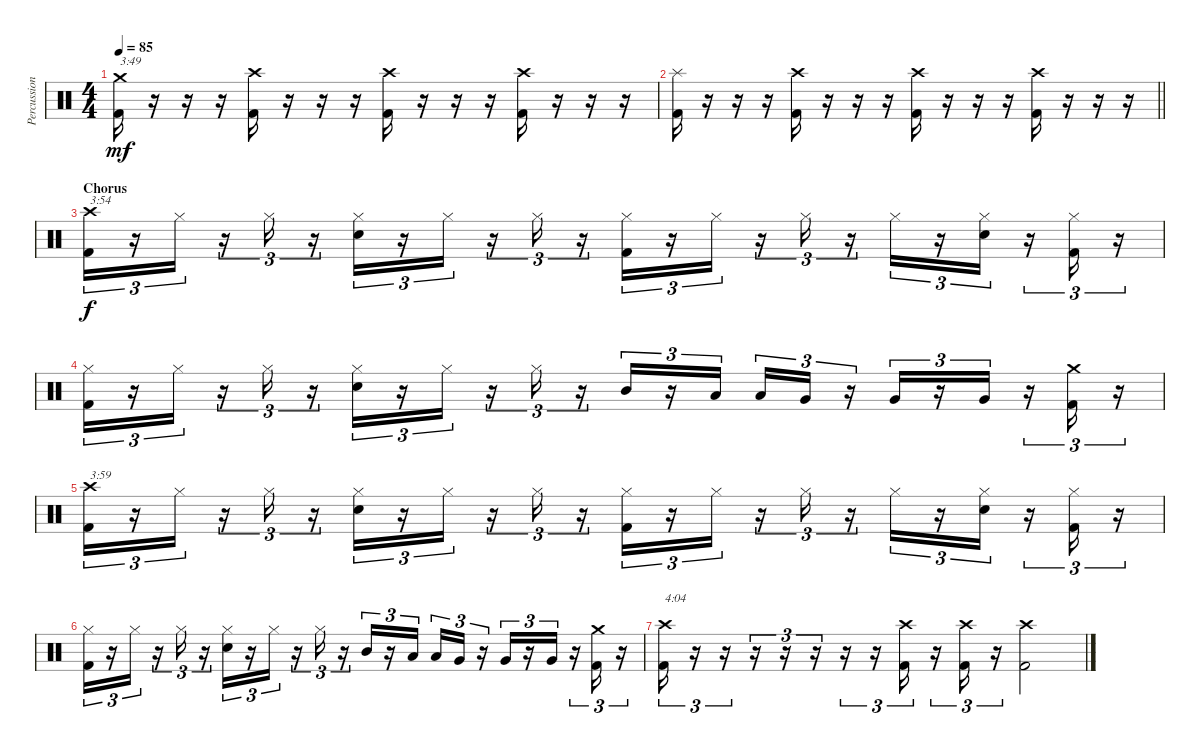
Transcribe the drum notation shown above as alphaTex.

\track ("Percussion" "Percussion") {instrument percussion}
\staff {score}
\articulation defaults
\ts (4 4)
\tempo 85
\clef neutral
\ks c
("Crash medium (hit)" "Kick (hit) 2").16{txt "3:49" dy mf volume 13} r.16{volume 0} r.16 r.16 ("Crash high (hit)" "Kick (hit) 2").16{volume 13} r.16{volume 0} r.16 r.16 ("Crash high (hit)" "Kick (hit) 2").16{volume 13} r.16{volume 0} r.16 r.16 ("Crash high (hit)" "Kick (hit) 2").16{volume 13} r.16{volume 0} r.16 r.16 |
\barLineRight lightlight
("Splash (hit)" "Kick (hit) 2").16{volume 13} r.16{volume 0} r.16 r.16 ("Crash high (hit)" "Kick (hit) 2").16{volume 13} r.16{volume 0} r.16 r.16 ("Crash high (hit)" "Kick (hit) 2").16{volume 13} r.16{volume 0} r.16 r.16 ("Crash high (hit)" "Kick (hit) 2").16{volume 13} r.16{volume 0} r.16 r.16 |
\section ("" "Chorus")
("Crash high (hit)" "Kick (hit) 2").16{tu (3 2) txt "3:54" dy f volume 13} r.16{tu (3 2)} "Hi-Hat (closed)".16{tu (3 2)} r.16{tu (3 2)} "Hi-Hat (closed)".16{tu (3 2)} r.16{tu (3 2)} ("Hi-Hat (closed)" "Snare (hit) 2").16{tu (3 2)} r.16{tu (3 2)} "Hi-Hat (closed)".16{tu (3 2)} r.16{tu (3 2)} "Hi-Hat (closed)".16{tu (3 2)} r.16{tu (3 2)} ("Hi-Hat (closed)" "Kick (hit) 2").16{tu (3 2)} r.16{tu (3 2)} "Hi-Hat (closed)".16{tu (3 2)} r.16{tu (3 2)} "Hi-Hat (closed)".16{tu (3 2)} r.16{tu (3 2)} "Hi-Hat (closed)".16{tu (3 2)} r.16{tu (3 2)} ("Hi-Hat (closed)" "Snare (hit) 2").16{tu (3 2)} r.16{tu (3 2)} ("Hi-Hat (closed)" "Kick (hit) 2").16{tu (3 2)} r.16{tu (3 2)} |
("Hi-Hat (closed)" "Kick (hit) 2").16{tu (3 2)} r.16{tu (3 2)} "Hi-Hat (closed)".16{tu (3 2)} r.16{tu (3 2)} "Hi-Hat (closed)".16{tu (3 2)} r.16{tu (3 2)} ("Hi-Hat (closed)" "Snare (hit) 2").16{tu (3 2)} r.16{tu (3 2)} "Hi-Hat (closed)".16{tu (3 2)} r.16{tu (3 2)} "Hi-Hat (closed)".16{tu (3 2)} r.16{tu (3 2)} "Mid Tom (hit)".16{tu (3 2)} r.16{tu (3 2)} "Low Tom (hit)".16{tu (3 2)} "Low Tom (hit)".16{tu (3 2)} "Very Low Tom (hit)".16{tu (3 2)} r.16{tu (3 2)} "Very Low Tom (hit)".16{tu (3 2)} r.16{tu (3 2)} "Very Low Tom (hit)".16{tu (3 2)} r.16{tu (3 2)} ("Crash medium (hit)" "Kick (hit) 2").16{tu (3 2)} r.16{tu (3 2)} |
("Crash high (hit)" "Kick (hit) 2").16{tu (3 2) txt "3:59"} r.16{tu (3 2)} "Hi-Hat (closed)".16{tu (3 2)} r.16{tu (3 2)} "Hi-Hat (closed)".16{tu (3 2)} r.16{tu (3 2)} ("Hi-Hat (closed)" "Snare (hit) 2").16{tu (3 2)} r.16{tu (3 2)} "Hi-Hat (closed)".16{tu (3 2)} r.16{tu (3 2)} "Hi-Hat (closed)".16{tu (3 2)} r.16{tu (3 2)} ("Hi-Hat (closed)" "Kick (hit) 2").16{tu (3 2)} r.16{tu (3 2)} "Hi-Hat (closed)".16{tu (3 2)} r.16{tu (3 2)} "Hi-Hat (closed)".16{tu (3 2)} r.16{tu (3 2)} "Hi-Hat (closed)".16{tu (3 2)} r.16{tu (3 2)} ("Hi-Hat (closed)" "Snare (hit) 2").16{tu (3 2)} r.16{tu (3 2)} ("Hi-Hat (closed)" "Kick (hit) 2").16{tu (3 2)} r.16{tu (3 2)} |
("Hi-Hat (closed)" "Kick (hit) 2").16{tu (3 2)} r.16{tu (3 2)} "Hi-Hat (closed)".16{tu (3 2)} r.16{tu (3 2)} "Hi-Hat (closed)".16{tu (3 2)} r.16{tu (3 2)} ("Hi-Hat (closed)" "Snare (hit) 2").16{tu (3 2)} r.16{tu (3 2)} "Hi-Hat (closed)".16{tu (3 2)} r.16{tu (3 2)} "Hi-Hat (closed)".16{tu (3 2)} r.16{tu (3 2)} "Mid Tom (hit)".16{tu (3 2)} r.16{tu (3 2)} "Low Tom (hit)".16{tu (3 2)} "Low Tom (hit)".16{tu (3 2)} "Very Low Tom (hit)".16{tu (3 2)} r.16{tu (3 2)} "Very Low Tom (hit)".16{tu (3 2)} r.16{tu (3 2)} "Very Low Tom (hit)".16{tu (3 2)} r.16{tu (3 2)} ("Crash medium (hit)" "Kick (hit) 2").16{tu (3 2)} r.16{tu (3 2)} |
("Crash high (hit)" "Kick (hit) 2").16{tu (3 2) txt "4:04"} r.16{tu (3 2)} r.16{tu (3 2)} r.16{tu (3 2)} r.16{tu (3 2)} r.16{tu (3 2)} r.16{tu (3 2)} r.16{tu (3 2)} ("Crash high (hit)" "Kick (hit) 2").16{tu (3 2)} r.16{tu (3 2)} ("Crash high (hit)" "Kick (hit) 2").16{tu (3 2)} r.16{tu (3 2)} ("Crash high (hit)" "Kick (hit) 2").2
